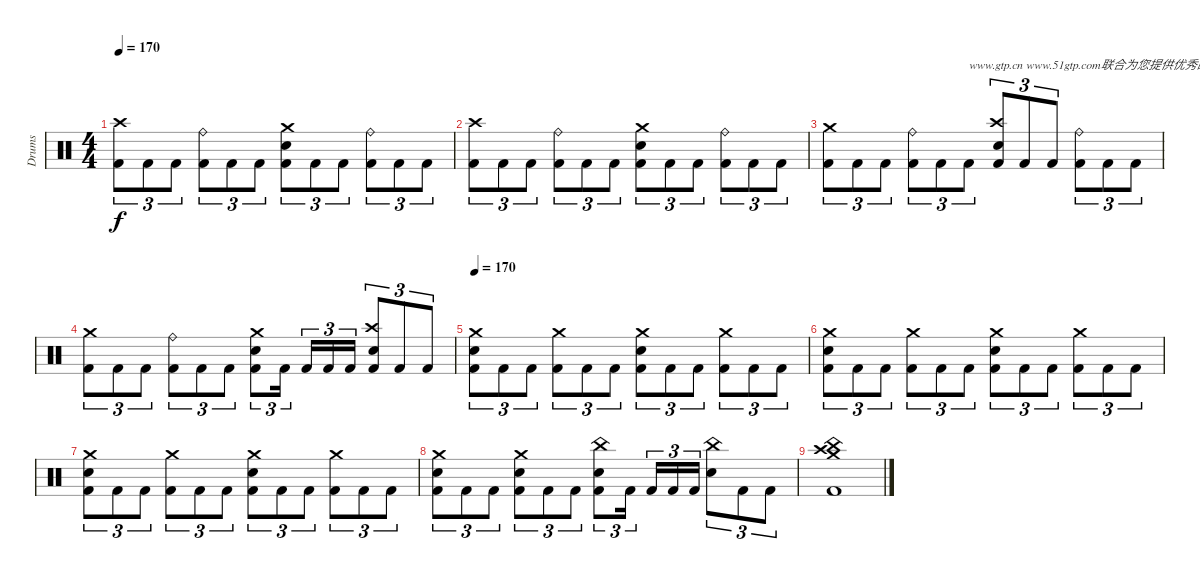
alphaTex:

\track ("Drums" "Drums") {instrument percussion}
\staff {score}
\articulation defaults
\ts (4 4)
\tempo 170
\clef neutral
\ks c
("Kick (hit) 2" "Crash high (hit)").8{tu (3 2) dy f} "Kick (hit) 2".8{tu (3 2)} "Kick (hit) 2".8{tu (3 2)} ("Kick (hit) 2" "Ride (bell)").8{tu (3 2)} "Kick (hit) 2".8{tu (3 2)} "Kick (hit) 2".8{tu (3 2)} ("Kick (hit) 2" "Electric Snare (hit)" "Crash medium (hit)").8{tu (3 2)} "Kick (hit) 2".8{tu (3 2)} "Kick (hit) 2".8{tu (3 2)} ("Kick (hit) 2" "Ride (bell)").8{tu (3 2)} "Kick (hit) 2".8{tu (3 2)} "Kick (hit) 2".8{tu (3 2)} |
("Kick (hit) 2" "Crash high (hit)").8{tu (3 2)} "Kick (hit) 2".8{tu (3 2)} "Kick (hit) 2".8{tu (3 2)} ("Kick (hit) 2" "Ride (bell)").8{tu (3 2)} "Kick (hit) 2".8{tu (3 2)} "Kick (hit) 2".8{tu (3 2)} ("Kick (hit) 2" "Electric Snare (hit)" "Crash medium (hit)").8{tu (3 2)} "Kick (hit) 2".8{tu (3 2)} "Kick (hit) 2".8{tu (3 2)} ("Kick (hit) 2" "Ride (bell)").8{tu (3 2)} "Kick (hit) 2".8{tu (3 2)} "Kick (hit) 2".8{tu (3 2)} |
("Kick (hit) 2" "Crash medium (hit)").8{tu (3 2)} "Kick (hit) 2".8{tu (3 2)} "Kick (hit) 2".8{tu (3 2)} ("Kick (hit) 2" "Ride (bell)").8{tu (3 2)} "Kick (hit) 2".8{tu (3 2)} "Kick (hit) 2".8{tu (3 2) txt "www.gtp.cn www.51gtp.com联合为您提供优秀的GTP!"} ("Kick (hit) 2" "Electric Snare (hit)" "Crash high (hit)").8{tu (3 2)} "Kick (hit) 2".8{tu (3 2)} "Kick (hit) 2".8{tu (3 2)} ("Kick (hit) 2" "Ride (bell)").8{tu (3 2)} "Kick (hit) 2".8{tu (3 2)} "Kick (hit) 2".8{tu (3 2)} |
("Kick (hit) 2" "Crash medium (hit)").8{tu (3 2)} "Kick (hit) 2".8{tu (3 2)} "Kick (hit) 2".8{tu (3 2)} ("Kick (hit) 2" "Ride (bell)").8{tu (3 2)} "Kick (hit) 2".8{tu (3 2)} "Kick (hit) 2".8{tu (3 2)} ("Kick (hit) 2" "Electric Snare (hit)" "Crash medium (hit)").8{tu (3 2)} "Kick (hit) 2".16{tu (3 2) beam splitsecondary} "Kick (hit) 2".16{tu (3 2)} "Kick (hit) 2".16{tu (3 2)} "Kick (hit) 2".16{tu (3 2)} ("Kick (hit) 2" "Electric Snare (hit)" "Crash high (hit)").8{tu (3 2)} "Kick (hit) 2".8{tu (3 2)} "Kick (hit) 2".8{tu (3 2)} |
\tempo 170
("Kick (hit) 2" "Electric Snare (hit)" "Crash medium (hit)").8{tu (3 2)} "Kick (hit) 2".8{tu (3 2)} "Kick (hit) 2".8{tu (3 2)} ("Kick (hit) 2" "Crash medium (hit)").8{tu (3 2)} "Kick (hit) 2".8{tu (3 2)} "Kick (hit) 2".8{tu (3 2)} ("Kick (hit) 2" "Electric Snare (hit)" "Crash medium (hit)").8{tu (3 2)} "Kick (hit) 2".8{tu (3 2)} "Kick (hit) 2".8{tu (3 2)} ("Kick (hit) 2" "Crash medium (hit)").8{tu (3 2)} "Kick (hit) 2".8{tu (3 2)} "Kick (hit) 2".8{tu (3 2)} |
("Kick (hit) 2" "Electric Snare (hit)" "Crash medium (hit)").8{tu (3 2)} "Kick (hit) 2".8{tu (3 2)} "Kick (hit) 2".8{tu (3 2)} ("Kick (hit) 2" "Crash medium (hit)").8{tu (3 2)} "Kick (hit) 2".8{tu (3 2)} "Kick (hit) 2".8{tu (3 2)} ("Kick (hit) 2" "Electric Snare (hit)" "Crash medium (hit)").8{tu (3 2)} "Kick (hit) 2".8{tu (3 2)} "Kick (hit) 2".8{tu (3 2)} ("Kick (hit) 2" "Crash medium (hit)").8{tu (3 2)} "Kick (hit) 2".8{tu (3 2)} "Kick (hit) 2".8{tu (3 2)} |
("Kick (hit) 2" "Electric Snare (hit)" "Crash medium (hit)").8{tu (3 2)} "Kick (hit) 2".8{tu (3 2)} "Kick (hit) 2".8{tu (3 2)} ("Kick (hit) 2" "Crash medium (hit)").8{tu (3 2)} "Kick (hit) 2".8{tu (3 2)} "Kick (hit) 2".8{tu (3 2)} ("Kick (hit) 2" "Electric Snare (hit)" "Crash medium (hit)").8{tu (3 2)} "Kick (hit) 2".8{tu (3 2)} "Kick (hit) 2".8{tu (3 2)} ("Kick (hit) 2" "Crash medium (hit)").8{tu (3 2)} "Kick (hit) 2".8{tu (3 2)} "Kick (hit) 2".8{tu (3 2)} |
("Kick (hit) 2" "Electric Snare (hit)" "Crash medium (hit)").8{tu (3 2)} "Kick (hit) 2".8{tu (3 2)} "Kick (hit) 2".8{tu (3 2)} ("Kick (hit) 2" "Electric Snare (hit)" "Crash medium (hit)").8{tu (3 2)} "Kick (hit) 2".8{tu (3 2)} "Kick (hit) 2".8{tu (3 2)} ("Kick (hit) 2" "Electric Snare (hit)" "China (hit)").8{tu (3 2)} "Kick (hit) 2".16{tu (3 2) beam splitsecondary} "Kick (hit) 2".16{tu (3 2)} "Kick (hit) 2".16{tu (3 2)} "Kick (hit) 2".16{tu (3 2)} ("Electric Snare (hit)" "China (hit)").8{tu (3 2)} "Kick (hit) 2".8{tu (3 2)} "Kick (hit) 2".8{tu (3 2)} |
("Kick (hit) 2" "Crash medium (hit)" "Crash high (hit)" "China (hit)").1
